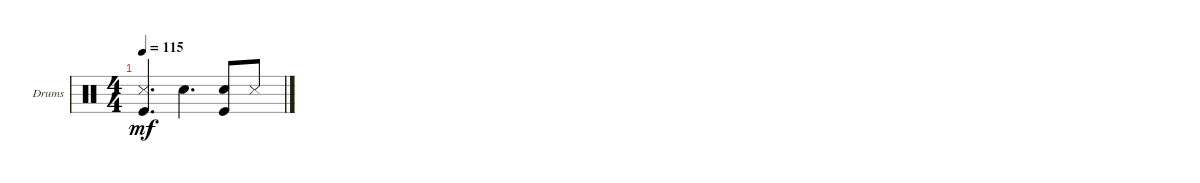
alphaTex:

\defaultSystemsLayout 4
\bracketExtendMode groupsimilarinstruments
\firstSystemTrackNameOrientation horizontal
\otherSystemsTrackNameOrientation horizontal
\track ("Drumkit" "Drums") {instrument percussion}
\staff {score}
\articulation defaults
\ts (4 4)
\tempo 115
\clef neutral
\ks c
("Snare (side stick) 3" "Kick (hit)").4{d dy mf} "Snare (hit) 2".4{d} ("Snare (hit) 2" "Kick (hit)").8 "Snare (side stick) 3".8
